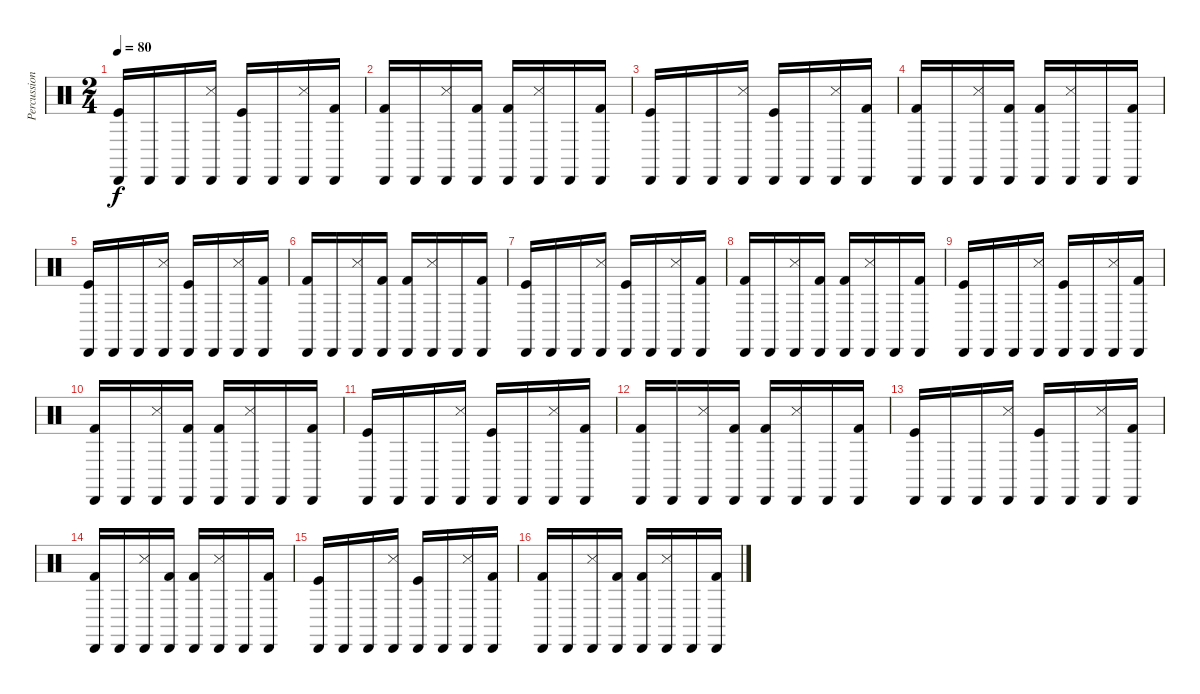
\track ("Percussions" "Percussion") {instrument percussion}
\staff {score}
\articulation defaults
\ts (2 4)
\tempo 80
\clef neutral
\ks c
("Cabasa (hit)" "Kick (hit)").16{dy f} "Cabasa (hit)".16 "Cabasa (hit)".16 ("Cabasa (hit)" "Snare (side stick) 3").16 ("Cabasa (hit)" "Kick (hit)").16 "Cabasa (hit)".16 ("Cabasa (hit)" "Snare (side stick) 3").16 ("Cabasa (hit)" "Kick (hit) 2").16 |
("Cabasa (hit)" "Kick (hit) 2").16 "Cabasa (hit)".16 ("Cabasa (hit)" "Snare (side stick) 3").16 ("Cabasa (hit)" "Kick (hit) 2").16 ("Cabasa (hit)" "Kick (hit) 2").16 ("Cabasa (hit)" "Snare (side stick) 3").16 "Cabasa (hit)".16 ("Cabasa (hit)" "Kick (hit) 2").16 |
("Cabasa (hit)" "Kick (hit)").16 "Cabasa (hit)".16 "Cabasa (hit)".16 ("Cabasa (hit)" "Snare (side stick) 3").16 ("Cabasa (hit)" "Kick (hit)").16 "Cabasa (hit)".16 ("Cabasa (hit)" "Snare (side stick) 3").16 ("Cabasa (hit)" "Kick (hit) 2").16 |
("Cabasa (hit)" "Kick (hit) 2").16 "Cabasa (hit)".16 ("Cabasa (hit)" "Snare (side stick) 3").16 ("Cabasa (hit)" "Kick (hit) 2").16 ("Cabasa (hit)" "Kick (hit) 2").16 ("Cabasa (hit)" "Snare (side stick) 3").16 "Cabasa (hit)".16 ("Cabasa (hit)" "Kick (hit) 2").16 |
("Cabasa (hit)" "Kick (hit)").16 "Cabasa (hit)".16 "Cabasa (hit)".16 ("Cabasa (hit)" "Snare (side stick) 3").16 ("Cabasa (hit)" "Kick (hit)").16 "Cabasa (hit)".16 ("Cabasa (hit)" "Snare (side stick) 3").16 ("Cabasa (hit)" "Kick (hit) 2").16 |
("Cabasa (hit)" "Kick (hit) 2").16 "Cabasa (hit)".16 ("Cabasa (hit)" "Snare (side stick) 3").16 ("Cabasa (hit)" "Kick (hit) 2").16 ("Cabasa (hit)" "Kick (hit) 2").16 ("Cabasa (hit)" "Snare (side stick) 3").16 "Cabasa (hit)".16 ("Cabasa (hit)" "Kick (hit) 2").16 |
("Cabasa (hit)" "Kick (hit)").16 "Cabasa (hit)".16 "Cabasa (hit)".16 ("Cabasa (hit)" "Snare (side stick) 3").16 ("Cabasa (hit)" "Kick (hit)").16 "Cabasa (hit)".16 ("Cabasa (hit)" "Snare (side stick) 3").16 ("Cabasa (hit)" "Kick (hit) 2").16 |
("Cabasa (hit)" "Kick (hit) 2").16 "Cabasa (hit)".16 ("Cabasa (hit)" "Snare (side stick) 3").16 ("Cabasa (hit)" "Kick (hit) 2").16 ("Cabasa (hit)" "Kick (hit) 2").16 ("Cabasa (hit)" "Snare (side stick) 3").16 "Cabasa (hit)".16 ("Cabasa (hit)" "Kick (hit) 2").16 |
("Cabasa (hit)" "Kick (hit)").16 "Cabasa (hit)".16 "Cabasa (hit)".16 ("Cabasa (hit)" "Snare (side stick) 3").16 ("Cabasa (hit)" "Kick (hit)").16 "Cabasa (hit)".16 ("Cabasa (hit)" "Snare (side stick) 3").16 ("Cabasa (hit)" "Kick (hit) 2").16 |
("Cabasa (hit)" "Kick (hit) 2").16 "Cabasa (hit)".16 ("Cabasa (hit)" "Snare (side stick) 3").16 ("Cabasa (hit)" "Kick (hit) 2").16 ("Cabasa (hit)" "Kick (hit) 2").16 ("Cabasa (hit)" "Snare (side stick) 3").16 "Cabasa (hit)".16 ("Cabasa (hit)" "Kick (hit) 2").16 |
("Cabasa (hit)" "Kick (hit)").16 "Cabasa (hit)".16 "Cabasa (hit)".16 ("Cabasa (hit)" "Snare (side stick) 3").16 ("Cabasa (hit)" "Kick (hit)").16 "Cabasa (hit)".16 ("Cabasa (hit)" "Snare (side stick) 3").16 ("Cabasa (hit)" "Kick (hit) 2").16 |
("Cabasa (hit)" "Kick (hit) 2").16 "Cabasa (hit)".16 ("Cabasa (hit)" "Snare (side stick) 3").16 ("Cabasa (hit)" "Kick (hit) 2").16 ("Cabasa (hit)" "Kick (hit) 2").16 ("Cabasa (hit)" "Snare (side stick) 3").16 "Cabasa (hit)".16 ("Cabasa (hit)" "Kick (hit) 2").16 |
("Cabasa (hit)" "Kick (hit)").16 "Cabasa (hit)".16 "Cabasa (hit)".16 ("Cabasa (hit)" "Snare (side stick) 3").16 ("Cabasa (hit)" "Kick (hit)").16 "Cabasa (hit)".16 ("Cabasa (hit)" "Snare (side stick) 3").16 ("Cabasa (hit)" "Kick (hit) 2").16 |
("Cabasa (hit)" "Kick (hit) 2").16 "Cabasa (hit)".16 ("Cabasa (hit)" "Snare (side stick) 3").16 ("Cabasa (hit)" "Kick (hit) 2").16 ("Cabasa (hit)" "Kick (hit) 2").16 ("Cabasa (hit)" "Snare (side stick) 3").16 "Cabasa (hit)".16 ("Cabasa (hit)" "Kick (hit) 2").16 |
("Cabasa (hit)" "Kick (hit)").16 "Cabasa (hit)".16 "Cabasa (hit)".16 ("Cabasa (hit)" "Snare (side stick) 3").16 ("Cabasa (hit)" "Kick (hit)").16 "Cabasa (hit)".16 ("Cabasa (hit)" "Snare (side stick) 3").16 ("Cabasa (hit)" "Kick (hit) 2").16 |
("Cabasa (hit)" "Kick (hit) 2").16 "Cabasa (hit)".16 ("Cabasa (hit)" "Snare (side stick) 3").16 ("Cabasa (hit)" "Kick (hit) 2").16 ("Cabasa (hit)" "Kick (hit) 2").16 ("Cabasa (hit)" "Snare (side stick) 3").16 "Cabasa (hit)".16 ("Cabasa (hit)" "Kick (hit) 2").16
